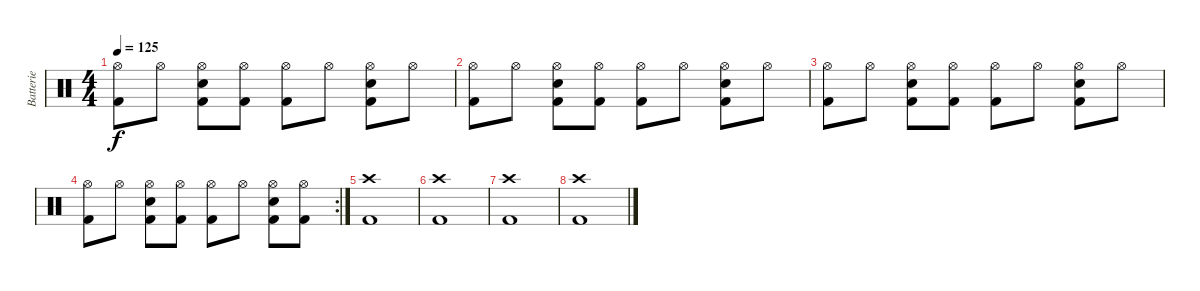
\track ("Batterie" "Batterie") {instrument percussion}
\staff {score}
\articulation defaults
\ts (4 4)
\tempo 125
\clef neutral
\ks c
("Hi-Hat (open)" "Kick (hit) 2").8{dy f} "Hi-Hat (open)".8 ("Hi-Hat (open)" "Kick (hit) 2" "Electric Snare (hit)").8 ("Hi-Hat (open)" "Kick (hit) 2").8 ("Hi-Hat (open)" "Kick (hit) 2").8 "Hi-Hat (open)".8 ("Hi-Hat (open)" "Kick (hit) 2" "Electric Snare (hit)").8 "Hi-Hat (open)".8 |
("Hi-Hat (open)" "Kick (hit) 2").8 "Hi-Hat (open)".8 ("Hi-Hat (open)" "Kick (hit) 2" "Electric Snare (hit)").8 ("Hi-Hat (open)" "Kick (hit) 2").8 ("Hi-Hat (open)" "Kick (hit) 2").8 "Hi-Hat (open)".8 ("Hi-Hat (open)" "Kick (hit) 2" "Electric Snare (hit)").8 "Hi-Hat (open)".8 |
("Hi-Hat (open)" "Kick (hit) 2").8 "Hi-Hat (open)".8 ("Hi-Hat (open)" "Kick (hit) 2" "Electric Snare (hit)").8 ("Hi-Hat (open)" "Kick (hit) 2").8 ("Hi-Hat (open)" "Kick (hit) 2").8 "Hi-Hat (open)".8 ("Hi-Hat (open)" "Kick (hit) 2" "Electric Snare (hit)").8 "Hi-Hat (open)".8 |
\rc 2
("Hi-Hat (open)" "Kick (hit) 2").8 "Hi-Hat (open)".8 ("Hi-Hat (open)" "Kick (hit) 2" "Electric Snare (hit)").8 ("Hi-Hat (open)" "Kick (hit) 2").8 ("Hi-Hat (open)" "Kick (hit) 2").8 "Hi-Hat (open)".8 ("Hi-Hat (open)" "Kick (hit) 2" "Electric Snare (hit)").8 ("Hi-Hat (open)" "Kick (hit) 2").8 |
("Kick (hit) 2" "Crash high (hit)").1 |
("Kick (hit) 2" "Crash high (hit)").1 |
("Kick (hit) 2" "Crash high (hit)").1 |
("Kick (hit) 2" "Crash high (hit)").1
